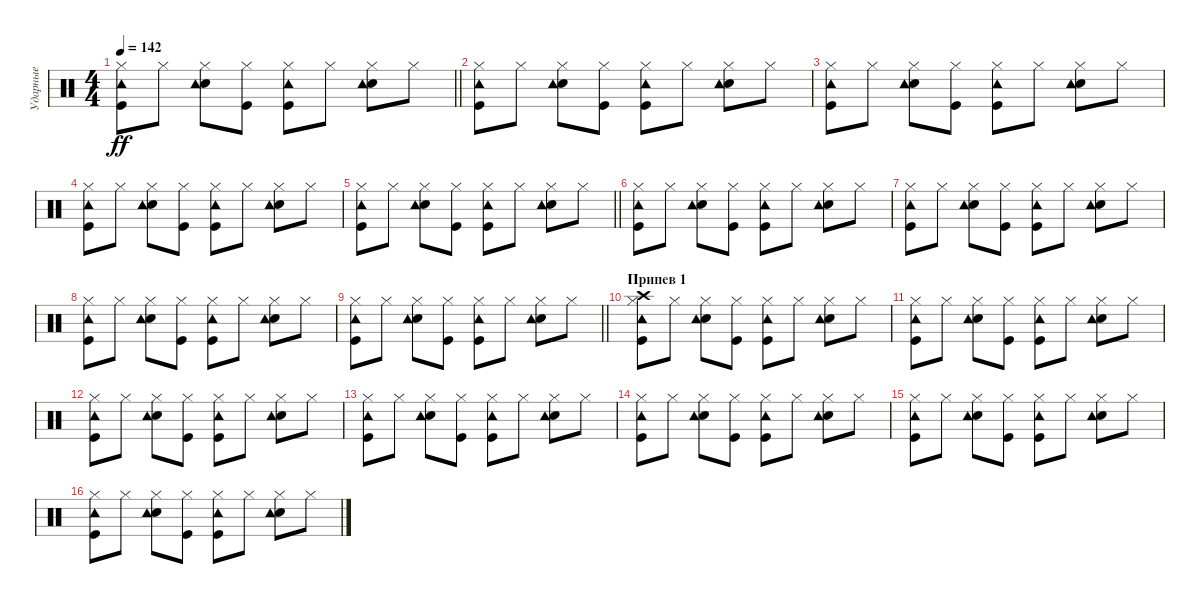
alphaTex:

\track ("Ударные" "Ударные") {instrument percussion}
\staff {score}
\articulation defaults
\ts (4 4)
\tempo 142
\clef neutral
\barLineRight lightlight
\ks c
("Hi-Hat (closed)" "Kick (hit)" "Tambourine (hit)").8{dy ff} "Hi-Hat (closed)".8 ("Hi-Hat (closed)" "Electric Snare (hit)" "Tambourine (hit)").8 ("Hi-Hat (closed)" "Kick (hit)").8 ("Hi-Hat (closed)" "Tambourine (hit)" "Kick (hit)").8 "Hi-Hat (closed)".8 ("Hi-Hat (closed)" "Electric Snare (hit)" "Tambourine (hit)").8 "Hi-Hat (closed)".8 |
("Hi-Hat (closed)" "Kick (hit)" "Tambourine (hit)").8 "Hi-Hat (closed)".8 ("Hi-Hat (closed)" "Electric Snare (hit)" "Tambourine (hit)").8 ("Hi-Hat (closed)" "Kick (hit)").8 ("Hi-Hat (closed)" "Tambourine (hit)" "Kick (hit)").8 "Hi-Hat (closed)".8 ("Hi-Hat (closed)" "Electric Snare (hit)" "Tambourine (hit)").8 "Hi-Hat (closed)".8 |
("Hi-Hat (closed)" "Kick (hit)" "Tambourine (hit)").8 "Hi-Hat (closed)".8 ("Hi-Hat (closed)" "Electric Snare (hit)" "Tambourine (hit)").8 ("Hi-Hat (closed)" "Kick (hit)").8 ("Hi-Hat (closed)" "Tambourine (hit)" "Kick (hit)").8 "Hi-Hat (closed)".8 ("Hi-Hat (closed)" "Electric Snare (hit)" "Tambourine (hit)").8 "Hi-Hat (closed)".8 |
("Hi-Hat (closed)" "Kick (hit)" "Tambourine (hit)").8 "Hi-Hat (closed)".8 ("Hi-Hat (closed)" "Electric Snare (hit)" "Tambourine (hit)").8 ("Hi-Hat (closed)" "Kick (hit)").8 ("Hi-Hat (closed)" "Tambourine (hit)" "Kick (hit)").8 "Hi-Hat (closed)".8 ("Hi-Hat (closed)" "Electric Snare (hit)" "Tambourine (hit)").8 "Hi-Hat (closed)".8 |
\barLineRight lightlight
("Hi-Hat (closed)" "Kick (hit)" "Tambourine (hit)").8 "Hi-Hat (closed)".8 ("Hi-Hat (closed)" "Electric Snare (hit)" "Tambourine (hit)").8 ("Hi-Hat (closed)" "Kick (hit)").8 ("Hi-Hat (closed)" "Tambourine (hit)" "Kick (hit)").8 "Hi-Hat (closed)".8 ("Hi-Hat (closed)" "Electric Snare (hit)" "Tambourine (hit)").8 "Hi-Hat (closed)".8 |
("Hi-Hat (closed)" "Kick (hit)" "Tambourine (hit)").8 "Hi-Hat (closed)".8 ("Hi-Hat (closed)" "Electric Snare (hit)" "Tambourine (hit)").8 ("Hi-Hat (closed)" "Kick (hit)").8 ("Hi-Hat (closed)" "Tambourine (hit)" "Kick (hit)").8 "Hi-Hat (closed)".8 ("Hi-Hat (closed)" "Electric Snare (hit)" "Tambourine (hit)").8 "Hi-Hat (closed)".8 |
("Hi-Hat (closed)" "Kick (hit)" "Tambourine (hit)").8 "Hi-Hat (closed)".8 ("Hi-Hat (closed)" "Electric Snare (hit)" "Tambourine (hit)").8 ("Hi-Hat (closed)" "Kick (hit)").8 ("Hi-Hat (closed)" "Tambourine (hit)" "Kick (hit)").8 "Hi-Hat (closed)".8 ("Hi-Hat (closed)" "Electric Snare (hit)" "Tambourine (hit)").8 "Hi-Hat (closed)".8 |
("Hi-Hat (closed)" "Kick (hit)" "Tambourine (hit)").8 "Hi-Hat (closed)".8 ("Hi-Hat (closed)" "Electric Snare (hit)" "Tambourine (hit)").8 ("Hi-Hat (closed)" "Kick (hit)").8 ("Hi-Hat (closed)" "Tambourine (hit)" "Kick (hit)").8 "Hi-Hat (closed)".8 ("Hi-Hat (closed)" "Electric Snare (hit)" "Tambourine (hit)").8 "Hi-Hat (closed)".8 |
\barLineRight lightlight
("Hi-Hat (closed)" "Kick (hit)" "Tambourine (hit)").8 "Hi-Hat (closed)".8 ("Hi-Hat (closed)" "Electric Snare (hit)" "Tambourine (hit)").8 ("Hi-Hat (closed)" "Kick (hit)").8 ("Hi-Hat (closed)" "Tambourine (hit)" "Kick (hit)").8 "Hi-Hat (closed)".8 ("Hi-Hat (closed)" "Electric Snare (hit)" "Tambourine (hit)").8 "Hi-Hat (closed)".8 |
\section ("" "Припев 1")
("Crash high (hit)" "Hi-Hat (closed)" "Kick (hit)" "Tambourine (hit)").8 "Hi-Hat (closed)".8 ("Hi-Hat (closed)" "Electric Snare (hit)" "Tambourine (hit)").8 ("Hi-Hat (closed)" "Kick (hit)").8 ("Hi-Hat (closed)" "Tambourine (hit)" "Kick (hit)").8 "Hi-Hat (closed)".8 ("Hi-Hat (closed)" "Electric Snare (hit)" "Tambourine (hit)").8 "Hi-Hat (closed)".8 |
("Hi-Hat (closed)" "Kick (hit)" "Tambourine (hit)").8 "Hi-Hat (closed)".8 ("Hi-Hat (closed)" "Electric Snare (hit)" "Tambourine (hit)").8 ("Hi-Hat (closed)" "Kick (hit)").8 ("Hi-Hat (closed)" "Tambourine (hit)" "Kick (hit)").8 "Hi-Hat (closed)".8 ("Hi-Hat (closed)" "Electric Snare (hit)" "Tambourine (hit)").8 "Hi-Hat (closed)".8 |
("Hi-Hat (closed)" "Kick (hit)" "Tambourine (hit)").8 "Hi-Hat (closed)".8 ("Hi-Hat (closed)" "Electric Snare (hit)" "Tambourine (hit)").8 ("Hi-Hat (closed)" "Kick (hit)").8 ("Hi-Hat (closed)" "Tambourine (hit)" "Kick (hit)").8 "Hi-Hat (closed)".8 ("Hi-Hat (closed)" "Electric Snare (hit)" "Tambourine (hit)").8 "Hi-Hat (closed)".8 |
("Hi-Hat (closed)" "Kick (hit)" "Tambourine (hit)").8 "Hi-Hat (closed)".8 ("Hi-Hat (closed)" "Electric Snare (hit)" "Tambourine (hit)").8 ("Hi-Hat (closed)" "Kick (hit)").8 ("Hi-Hat (closed)" "Tambourine (hit)" "Kick (hit)").8 "Hi-Hat (closed)".8 ("Hi-Hat (closed)" "Electric Snare (hit)" "Tambourine (hit)").8 "Hi-Hat (closed)".8 |
("Hi-Hat (closed)" "Kick (hit)" "Tambourine (hit)").8 "Hi-Hat (closed)".8 ("Hi-Hat (closed)" "Electric Snare (hit)" "Tambourine (hit)").8 ("Hi-Hat (closed)" "Kick (hit)").8 ("Hi-Hat (closed)" "Tambourine (hit)" "Kick (hit)").8 "Hi-Hat (closed)".8 ("Hi-Hat (closed)" "Electric Snare (hit)" "Tambourine (hit)").8 "Hi-Hat (closed)".8 |
("Hi-Hat (closed)" "Kick (hit)" "Tambourine (hit)").8 "Hi-Hat (closed)".8 ("Hi-Hat (closed)" "Electric Snare (hit)" "Tambourine (hit)").8 ("Hi-Hat (closed)" "Kick (hit)").8 ("Hi-Hat (closed)" "Tambourine (hit)" "Kick (hit)").8 "Hi-Hat (closed)".8 ("Hi-Hat (closed)" "Electric Snare (hit)" "Tambourine (hit)").8 "Hi-Hat (closed)".8 |
("Hi-Hat (closed)" "Kick (hit)" "Tambourine (hit)").8 "Hi-Hat (closed)".8 ("Hi-Hat (closed)" "Electric Snare (hit)" "Tambourine (hit)").8 ("Hi-Hat (closed)" "Kick (hit)").8 ("Hi-Hat (closed)" "Tambourine (hit)" "Kick (hit)").8 "Hi-Hat (closed)".8 ("Hi-Hat (closed)" "Electric Snare (hit)" "Tambourine (hit)").8 "Hi-Hat (closed)".8
